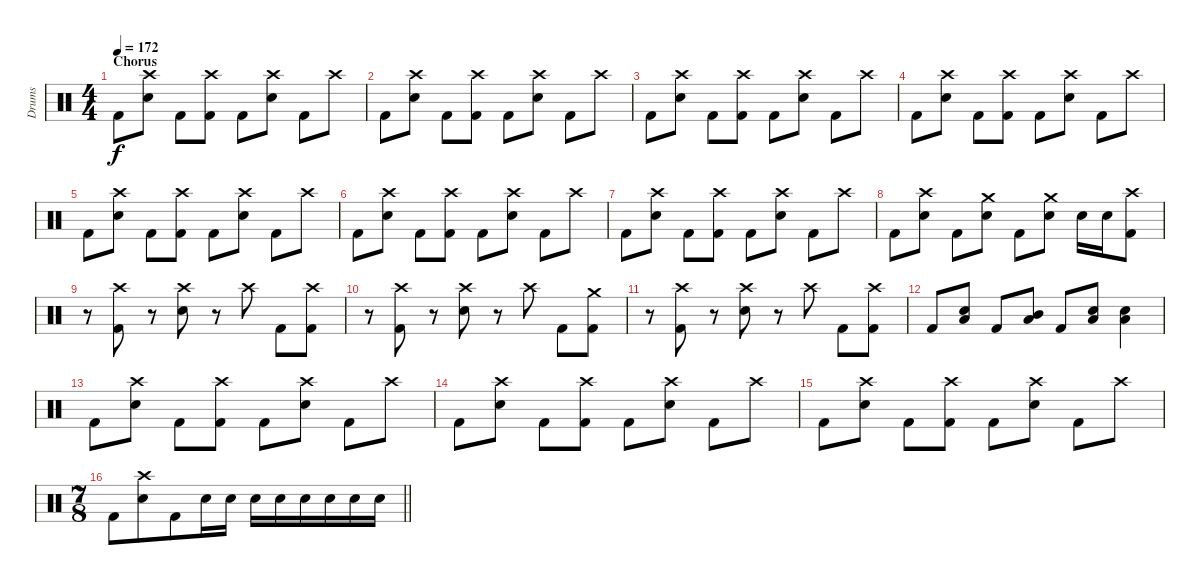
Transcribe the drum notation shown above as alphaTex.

\track ("Drums" "Drums") {instrument percussion}
\staff {score}
\articulation defaults
\ts (4 4)
\section ("" "Chorus")
\tempo 172
\clef neutral
\ks c "Kick (hit) 2".8{dy f}
("Crash high (hit)" "Electric Snare (hit)").8 "Kick (hit) 2".8 ("Crash high (hit)" "Kick (hit) 2").8 "Kick (hit) 2".8 ("Crash high (hit)" "Electric Snare (hit)").8 "Kick (hit) 2".8 "Crash high (hit)".8 |
"Kick (hit) 2".8 ("Crash high (hit)" "Electric Snare (hit)").8 "Kick (hit) 2".8 ("Crash high (hit)" "Kick (hit) 2").8 "Kick (hit) 2".8 ("Crash high (hit)" "Electric Snare (hit)").8 "Kick (hit) 2".8 "Crash high (hit)".8 |
"Kick (hit) 2".8 ("Crash high (hit)" "Electric Snare (hit)").8 "Kick (hit) 2".8 ("Crash high (hit)" "Kick (hit) 2").8 "Kick (hit) 2".8 ("Crash high (hit)" "Electric Snare (hit)").8 "Kick (hit) 2".8 "Crash high (hit)".8 |
"Kick (hit) 2".8 ("Crash high (hit)" "Electric Snare (hit)").8 "Kick (hit) 2".8 ("Crash high (hit)" "Kick (hit) 2").8 "Kick (hit) 2".8 ("Crash high (hit)" "Electric Snare (hit)").8 "Kick (hit) 2".8 "Crash high (hit)".8 |
"Kick (hit) 2".8 ("Crash high (hit)" "Electric Snare (hit)").8 "Kick (hit) 2".8 ("Crash high (hit)" "Kick (hit) 2").8 "Kick (hit) 2".8 ("Crash high (hit)" "Electric Snare (hit)").8 "Kick (hit) 2".8 "Crash high (hit)".8 |
"Kick (hit) 2".8 ("Crash high (hit)" "Electric Snare (hit)").8 "Kick (hit) 2".8 ("Crash high (hit)" "Kick (hit) 2").8 "Kick (hit) 2".8 ("Crash high (hit)" "Electric Snare (hit)").8 "Kick (hit) 2".8 "Crash high (hit)".8 |
"Kick (hit) 2".8 ("Crash high (hit)" "Electric Snare (hit)").8 "Kick (hit) 2".8 ("Crash high (hit)" "Kick (hit) 2").8 "Kick (hit) 2".8 ("Crash high (hit)" "Electric Snare (hit)").8 "Kick (hit) 2".8 "Crash high (hit)".8 |
"Kick (hit) 2".8 ("Crash high (hit)" "Electric Snare (hit)").8 "Kick (hit) 2".8 ("Crash medium (hit)" "Electric Snare (hit)").8 "Kick (hit) 2".8 ("Crash medium (hit)" "Electric Snare (hit)").8 "Electric Snare (hit)".16 "Electric Snare (hit)".16 ("Crash high (hit)" "Kick (hit) 2").8 |
r.8 ("Crash high (hit)" "Kick (hit) 2").8 r.8 ("Crash high (hit)" "Electric Snare (hit)").8 r.8 "Crash high (hit)".8 "Kick (hit) 2".8 ("Crash high (hit)" "Kick (hit) 2").8 |
r.8 ("Crash high (hit)" "Kick (hit) 2").8 r.8 ("Crash high (hit)" "Electric Snare (hit)").8 r.8 "Crash high (hit)".8 "Kick (hit) 2".8 ("Crash medium (hit)" "Kick (hit) 2").8 |
r.8 ("Crash high (hit)" "Kick (hit) 2").8 r.8 ("Crash high (hit)" "Electric Snare (hit)").8 r.8 "Crash high (hit)".8 "Kick (hit) 2".8 ("Crash high (hit)" "Kick (hit) 2").8 |
"Kick (hit) 2".8 ("Low Floor Tom (hit)" "Electric Snare (hit)").8 "Kick (hit) 2".8 ("Mid Tom (hit)" "Low Tom (hit)").8 "Kick (hit) 2".8 ("Low Floor Tom (hit)" "Electric Snare (hit)").8 ("Low Floor Tom (hit)" "Electric Snare (hit)").4 |
"Kick (hit) 2".8 ("Crash high (hit)" "Electric Snare (hit)").8 "Kick (hit) 2".8 ("Crash high (hit)" "Kick (hit) 2").8 "Kick (hit) 2".8 ("Crash high (hit)" "Electric Snare (hit)").8 "Kick (hit) 2".8 "Crash high (hit)".8 |
"Kick (hit) 2".8 ("Crash high (hit)" "Electric Snare (hit)").8 "Kick (hit) 2".8 ("Crash high (hit)" "Kick (hit) 2").8 "Kick (hit) 2".8 ("Crash high (hit)" "Electric Snare (hit)").8 "Kick (hit) 2".8 "Crash high (hit)".8 |
"Kick (hit) 2".8 ("Crash high (hit)" "Electric Snare (hit)").8 "Kick (hit) 2".8 ("Crash high (hit)" "Kick (hit) 2").8 "Kick (hit) 2".8 ("Crash high (hit)" "Electric Snare (hit)").8 "Kick (hit) 2".8 "Crash high (hit)".8 |
\ts (7 8)
\barLineRight lightlight "Kick (hit) 2".8
("Crash high (hit)" "Electric Snare (hit)").8 "Kick (hit) 2".8 "Electric Snare (hit)".16 "Electric Snare (hit)".16 "Electric Snare (hit)".16 "Electric Snare (hit)".16 "Electric Snare (hit)".16 "Electric Snare (hit)".16 "Electric Snare (hit)".16 "Electric Snare (hit)".16
